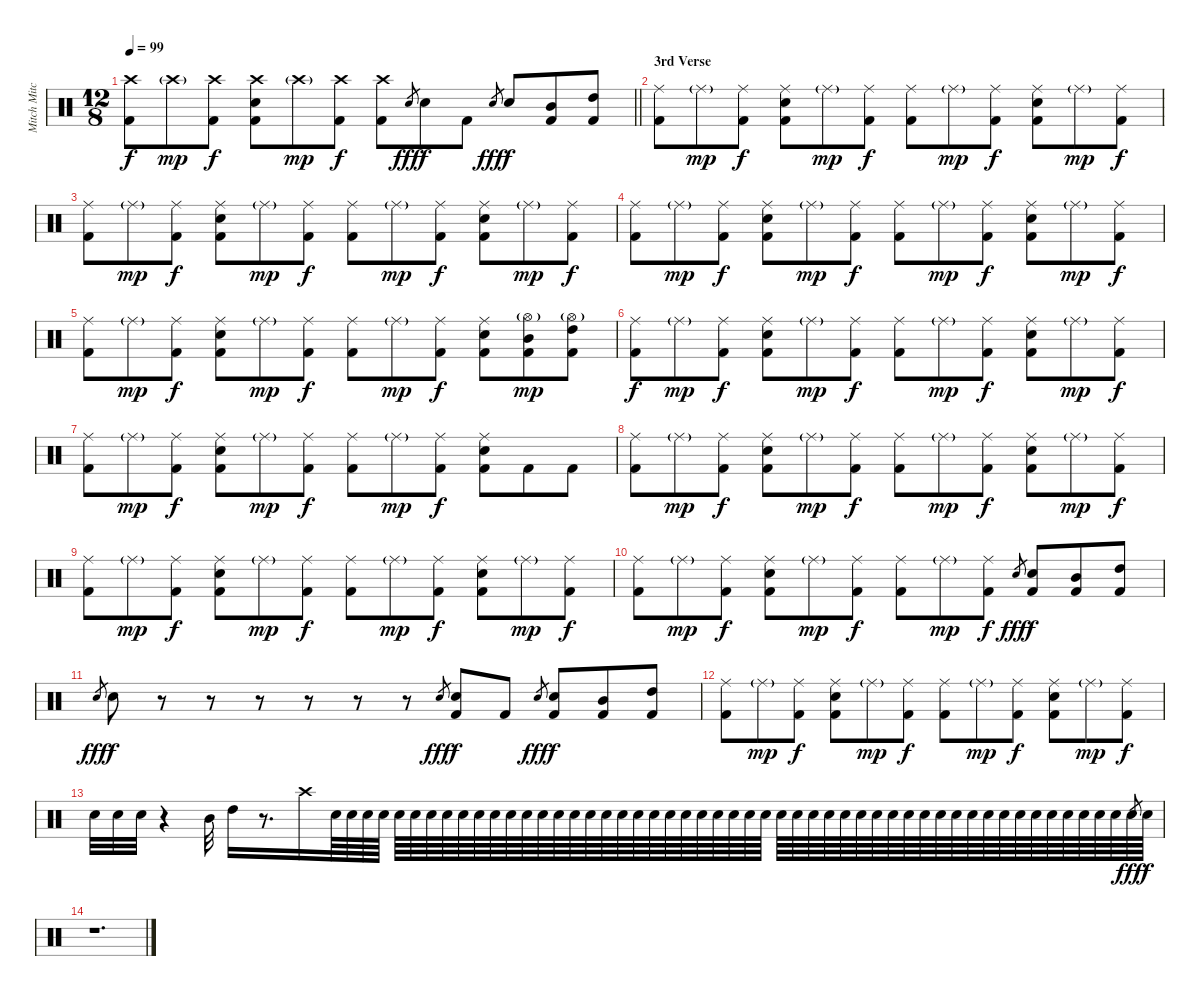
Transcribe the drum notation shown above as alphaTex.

\track ("Mitch Mitchell" "Mitch Mitc") {instrument percussion}
\staff {score}
\articulation defaults
\ts (12 8)
\tempo 99
\clef neutral
\barLineRight lightlight
\ks c
("Crash high (hit)" "Kick (hit) 2").8{dy f} "Crash high (hit)"{g}.8{dy mp} ("Crash high (hit)" "Kick (hit) 2").8{dy f} ("Crash high (hit)" "Electric Snare (hit)" "Kick (hit) 2").8 "Crash high (hit)"{g}.8{dy mp} ("Crash high (hit)" "Kick (hit) 2").8{dy f} ("Crash high (hit)" "Kick (hit) 2").8 "Electric Snare (hit)".8{gr dy fff} "Electric Snare (hit)".8{dy f} "Kick (hit) 2".8 "Electric Snare (hit)".8{gr dy fff} "Electric Snare (hit)".8{dy f} ("Mid Tom (hit)" "Kick (hit) 2").8 ("High Tom (hit)" "Kick (hit) 2").8 |
\section ("" "3rd Verse")
("Ride (middle)" "Kick (hit) 2").8 "Ride (middle)"{g}.8{dy mp} ("Ride (middle)" "Kick (hit) 2").8{dy f} ("Ride (middle)" "Electric Snare (hit)" "Kick (hit) 2").8 "Ride (middle)"{g}.8{dy mp} ("Ride (middle)" "Kick (hit) 2").8{dy f} ("Ride (middle)" "Kick (hit) 2").8 "Ride (middle)"{g}.8{dy mp} ("Ride (middle)" "Kick (hit) 2").8{dy f} ("Ride (middle)" "Electric Snare (hit)" "Kick (hit) 2").8 "Ride (middle)"{g}.8{dy mp} ("Ride (middle)" "Kick (hit) 2").8{dy f} |
("Ride (middle)" "Kick (hit) 2").8 "Ride (middle)"{g}.8{dy mp} ("Ride (middle)" "Kick (hit) 2").8{dy f} ("Ride (middle)" "Electric Snare (hit)" "Kick (hit) 2").8 "Ride (middle)"{g}.8{dy mp} ("Ride (middle)" "Kick (hit) 2").8{dy f} ("Ride (middle)" "Kick (hit) 2").8 "Ride (middle)"{g}.8{dy mp} ("Ride (middle)" "Kick (hit) 2").8{dy f} ("Ride (middle)" "Electric Snare (hit)" "Kick (hit) 2").8 "Ride (middle)"{g}.8{dy mp} ("Ride (middle)" "Kick (hit) 2").8{dy f} |
("Ride (middle)" "Kick (hit) 2").8 "Ride (middle)"{g}.8{dy mp} ("Ride (middle)" "Kick (hit) 2").8{dy f} ("Ride (middle)" "Electric Snare (hit)" "Kick (hit) 2").8 "Ride (middle)"{g}.8{dy mp} ("Ride (middle)" "Kick (hit) 2").8{dy f} ("Ride (middle)" "Kick (hit) 2").8 "Ride (middle)"{g}.8{dy mp} ("Ride (middle)" "Kick (hit) 2").8{dy f} ("Ride (middle)" "Electric Snare (hit)" "Kick (hit) 2").8 "Ride (middle)"{g}.8{dy mp} ("Ride (middle)" "Kick (hit) 2").8{dy f} |
("Ride (middle)" "Kick (hit) 2").8 "Ride (middle)"{g}.8{dy mp} ("Ride (middle)" "Kick (hit) 2").8{dy f} ("Ride (middle)" "Electric Snare (hit)" "Kick (hit) 2").8 "Ride (middle)"{g}.8{dy mp} ("Ride (middle)" "Kick (hit) 2").8{dy f} ("Ride (middle)" "Kick (hit) 2").8 "Ride (middle)"{g}.8{dy mp} ("Ride (middle)" "Kick (hit) 2").8{dy f} ("Ride (middle)" "Electric Snare (hit)" "Kick (hit) 2").8 ("Hi-Hat (open)"{g} "Mid Tom (hit)" "Kick (hit) 2").8{dy mp} ("Hi-Hat (open)"{g} "High Tom (hit)" "Kick (hit) 2").8 |
("Ride (middle)" "Kick (hit) 2").8{dy f} "Ride (middle)"{g}.8{dy mp} ("Ride (middle)" "Kick (hit) 2").8{dy f} ("Ride (middle)" "Electric Snare (hit)" "Kick (hit) 2").8 "Ride (middle)"{g}.8{dy mp} ("Ride (middle)" "Kick (hit) 2").8{dy f} ("Ride (middle)" "Kick (hit) 2").8 "Ride (middle)"{g}.8{dy mp} ("Ride (middle)" "Kick (hit) 2").8{dy f} ("Ride (middle)" "Electric Snare (hit)" "Kick (hit) 2").8 "Ride (middle)"{g}.8{dy mp} ("Ride (middle)" "Kick (hit) 2").8{dy f} |
("Ride (middle)" "Kick (hit) 2").8 "Ride (middle)"{g}.8{dy mp} ("Ride (middle)" "Kick (hit) 2").8{dy f} ("Ride (middle)" "Electric Snare (hit)" "Kick (hit) 2").8 "Ride (middle)"{g}.8{dy mp} ("Ride (middle)" "Kick (hit) 2").8{dy f} ("Ride (middle)" "Kick (hit) 2").8 "Ride (middle)"{g}.8{dy mp} ("Ride (middle)" "Kick (hit) 2").8{dy f} ("Ride (middle)" "Electric Snare (hit)" "Kick (hit) 2").8 "Kick (hit) 2".8 "Kick (hit) 2".8 |
("Ride (middle)" "Kick (hit) 2").8 "Ride (middle)"{g}.8{dy mp} ("Ride (middle)" "Kick (hit) 2").8{dy f} ("Ride (middle)" "Electric Snare (hit)" "Kick (hit) 2").8 "Ride (middle)"{g}.8{dy mp} ("Ride (middle)" "Kick (hit) 2").8{dy f} ("Ride (middle)" "Kick (hit) 2").8 "Ride (middle)"{g}.8{dy mp} ("Ride (middle)" "Kick (hit) 2").8{dy f} ("Ride (middle)" "Electric Snare (hit)" "Kick (hit) 2").8 "Ride (middle)"{g}.8{dy mp} ("Ride (middle)" "Kick (hit) 2").8{dy f} |
("Ride (middle)" "Kick (hit) 2").8 "Ride (middle)"{g}.8{dy mp} ("Ride (middle)" "Kick (hit) 2").8{dy f} ("Ride (middle)" "Electric Snare (hit)" "Kick (hit) 2").8 "Ride (middle)"{g}.8{dy mp} ("Ride (middle)" "Kick (hit) 2").8{dy f} ("Ride (middle)" "Kick (hit) 2").8 "Ride (middle)"{g}.8{dy mp} ("Ride (middle)" "Kick (hit) 2").8{dy f} ("Ride (middle)" "Electric Snare (hit)" "Kick (hit) 2").8 "Ride (middle)"{g}.8{dy mp} ("Ride (middle)" "Kick (hit) 2").8{dy f} |
("Ride (middle)" "Kick (hit) 2").8 "Ride (middle)"{g}.8{dy mp} ("Ride (middle)" "Kick (hit) 2").8{dy f} ("Ride (middle)" "Electric Snare (hit)" "Kick (hit) 2").8 "Ride (middle)"{g}.8{dy mp} ("Ride (middle)" "Kick (hit) 2").8{dy f} ("Ride (middle)" "Kick (hit) 2").8 "Ride (middle)"{g}.8{dy mp} ("Ride (middle)" "Kick (hit) 2").8{dy f} "Electric Snare (hit)".8{gr dy fff} ("Electric Snare (hit)" "Kick (hit) 2").8{dy f} ("Mid Tom (hit)" "Kick (hit) 2").8 ("High Tom (hit)" "Kick (hit) 2").8 |
"Electric Snare (hit)".8{gr dy fff} "Electric Snare (hit)".8{dy f} r.8 r.8 r.8 r.8 r.8 r.8 "Electric Snare (hit)".8{gr dy fff} ("Electric Snare (hit)" "Kick (hit) 2").8{dy f} "Kick (hit) 2".8 "Electric Snare (hit)".8{gr dy fff} ("Electric Snare (hit)" "Kick (hit) 2").8{dy f} ("Mid Tom (hit)" "Kick (hit) 2").8 ("High Tom (hit)" "Kick (hit) 2").8 |
("Ride (middle)" "Kick (hit) 2").8 "Ride (middle)"{g}.8{dy mp} ("Ride (middle)" "Kick (hit) 2").8{dy f} ("Ride (middle)" "Electric Snare (hit)" "Kick (hit) 2").8 "Ride (middle)"{g}.8{dy mp} ("Ride (middle)" "Kick (hit) 2").8{dy f} ("Ride (middle)" "Kick (hit) 2").8 "Ride (middle)"{g}.8{dy mp} ("Ride (middle)" "Kick (hit) 2").8{dy f} ("Ride (middle)" "Electric Snare (hit)" "Kick (hit) 2").8 "Ride (middle)"{g}.8{dy mp} ("Ride (middle)" "Kick (hit) 2").8{dy f} |
"Electric Snare (hit)".32 "Electric Snare (hit)".32 "Electric Snare (hit)".32 r.4 "Mid Tom (hit)".32 "High Tom (hit)".16 r.8{d} "Crash high (hit)".16 "Electric Snare (hit)".64 "Electric Snare (hit)".64 "Electric Snare (hit)".64 "Electric Snare (hit)".64 "Electric Snare (hit)".64 "Electric Snare (hit)".64 "Electric Snare (hit)".64 "Electric Snare (hit)".64 "Electric Snare (hit)".64 "Electric Snare (hit)".64 "Electric Snare (hit)".64 "Electric Snare (hit)".64 "Electric Snare (hit)".64 "Electric Snare (hit)".64 "Electric Snare (hit)".64 "Electric Snare (hit)".64 "Electric Snare (hit)".64 "Electric Snare (hit)".64 "Electric Snare (hit)".64 "Electric Snare (hit)".64 "Electric Snare (hit)".64 "Electric Snare (hit)".64 "Electric Snare (hit)".64 "Electric Snare (hit)".64 "Electric Snare (hit)".64 "Electric Snare (hit)".64 "Electric Snare (hit)".64 "Electric Snare (hit)".64 "Electric Snare (hit)".64 "Electric Snare (hit)".64 "Electric Snare (hit)".64 "Electric Snare (hit)".64 "Electric Snare (hit)".64 "Electric Snare (hit)".64 "Electric Snare (hit)".64 "Electric Snare (hit)".64 "Electric Snare (hit)".64 "Electric Snare (hit)".64 "Electric Snare (hit)".64 "Electric Snare (hit)".64 "Electric Snare (hit)".64 "Electric Snare (hit)".64 "Electric Snare (hit)".64 "Electric Snare (hit)".64 "Electric Snare (hit)".64 "Electric Snare (hit)".64 "Electric Snare (hit)".64 "Electric Snare (hit)".64 "Electric Snare (hit)".64 "Electric Snare (hit)".64 "Electric Snare (hit)".64 "Electric Snare (hit)".8{gr dy fff} "Electric Snare (hit)".64{dy f} |
r.1{d}
